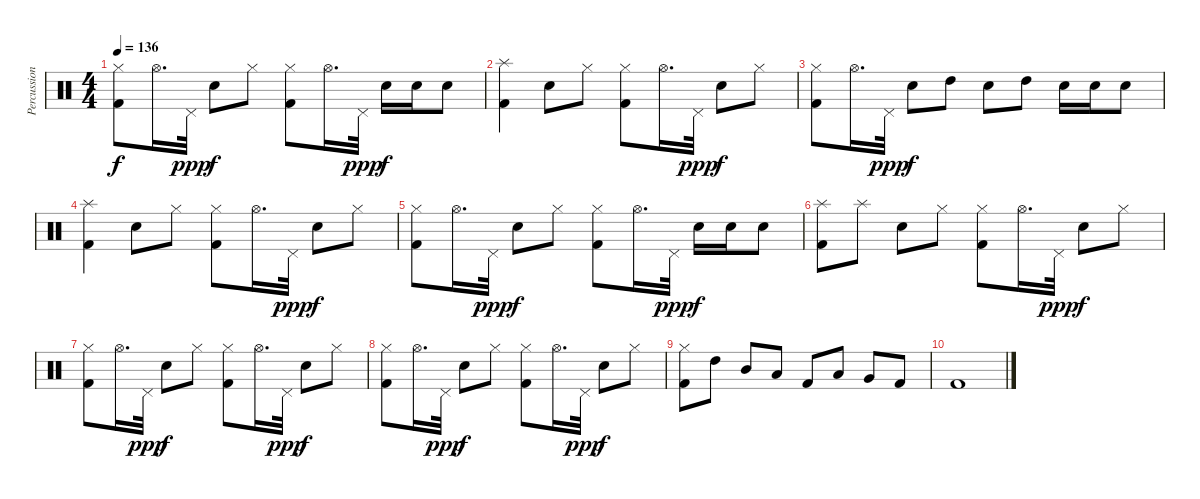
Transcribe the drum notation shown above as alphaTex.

\track ("Percussions" "Percussion") {instrument percussion}
\staff {score}
\articulation defaults
\ts (4 4)
\tempo 136
\clef neutral
\ks c
("Kick (hit) 2" "Hi-Hat (closed)").8{dy f} "Hi-Hat (open)".16{d} "Pedal Hi-Hat (hit)".32{dy ppp} "Electric Snare (hit)".8{dy f} "Hi-Hat (closed)".8 ("Kick (hit) 2" "Hi-Hat (closed)").8 "Hi-Hat (open)".16{d} "Pedal Hi-Hat (hit)".32{dy ppp} "Electric Snare (hit)".16{dy f} "Electric Snare (hit)".16 "Electric Snare (hit)".8 |
("Kick (hit) 2" "Splash (hit)").4 "Electric Snare (hit)".8 "Hi-Hat (closed)".8 ("Kick (hit) 2" "Hi-Hat (closed)").8 "Hi-Hat (open)".16{d} "Pedal Hi-Hat (hit)".32{dy ppp} "Electric Snare (hit)".8{dy f} "Hi-Hat (closed)".8 |
("Kick (hit) 2" "Hi-Hat (closed)").8 "Hi-Hat (open)".16{d} "Pedal Hi-Hat (hit)".32{dy ppp} "Electric Snare (hit)".8{dy f} "High Tom (hit)".8 "Electric Snare (hit)".8 "High Tom (hit)".8 "Electric Snare (hit)".16 "Electric Snare (hit)".16 "Electric Snare (hit)".8 |
("Kick (hit) 2" "Splash (hit)").4 "Electric Snare (hit)".8 "Hi-Hat (closed)".8 ("Kick (hit) 2" "Hi-Hat (closed)").8 "Hi-Hat (open)".16{d} "Pedal Hi-Hat (hit)".32{dy ppp} "Electric Snare (hit)".8{dy f} "Hi-Hat (closed)".8 |
("Kick (hit) 2" "Hi-Hat (closed)").8 "Hi-Hat (open)".16{d} "Pedal Hi-Hat (hit)".32{dy ppp} "Electric Snare (hit)".8{dy f} "Hi-Hat (closed)".8 ("Kick (hit) 2" "Hi-Hat (closed)").8 "Hi-Hat (open)".16{d} "Pedal Hi-Hat (hit)".32{dy ppp} "Electric Snare (hit)".16{dy f} "Electric Snare (hit)".16 "Electric Snare (hit)".8 |
("Kick (hit) 2" "Splash (hit)").8 "Splash (hit)".8 "Electric Snare (hit)".8 "Hi-Hat (closed)".8 ("Kick (hit) 2" "Hi-Hat (closed)").8 "Hi-Hat (open)".16{d} "Pedal Hi-Hat (hit)".32{dy ppp} "Electric Snare (hit)".8{dy f} "Hi-Hat (closed)".8 |
("Kick (hit) 2" "Hi-Hat (closed)").8 "Hi-Hat (open)".16{d} "Pedal Hi-Hat (hit)".32{dy ppp} "Electric Snare (hit)".8{dy f} "Hi-Hat (closed)".8 ("Kick (hit) 2" "Hi-Hat (closed)").8 "Hi-Hat (open)".16{d} "Pedal Hi-Hat (hit)".32{dy ppp} "Electric Snare (hit)".8{dy f} "Hi-Hat (closed)".8 |
("Kick (hit) 2" "Hi-Hat (closed)").8 "Hi-Hat (open)".16{d} "Pedal Hi-Hat (hit)".32{dy ppp} "Electric Snare (hit)".8{dy f} "Hi-Hat (closed)".8 ("Kick (hit) 2" "Hi-Hat (closed)").8 "Hi-Hat (open)".16{d} "Pedal Hi-Hat (hit)".32{dy ppp} "Electric Snare (hit)".8{dy f} "Hi-Hat (closed)".8 |
("Kick (hit) 2" "Hi-Hat (closed)").8 "High Tom (hit)".8 "Mid Tom (hit)".8 "Low Tom (hit)".8 "Kick (hit) 2".8 "Low Tom (hit)".8 "Very Low Tom (hit)".8 "Kick (hit) 2".8 |
"Kick (hit) 2".1
